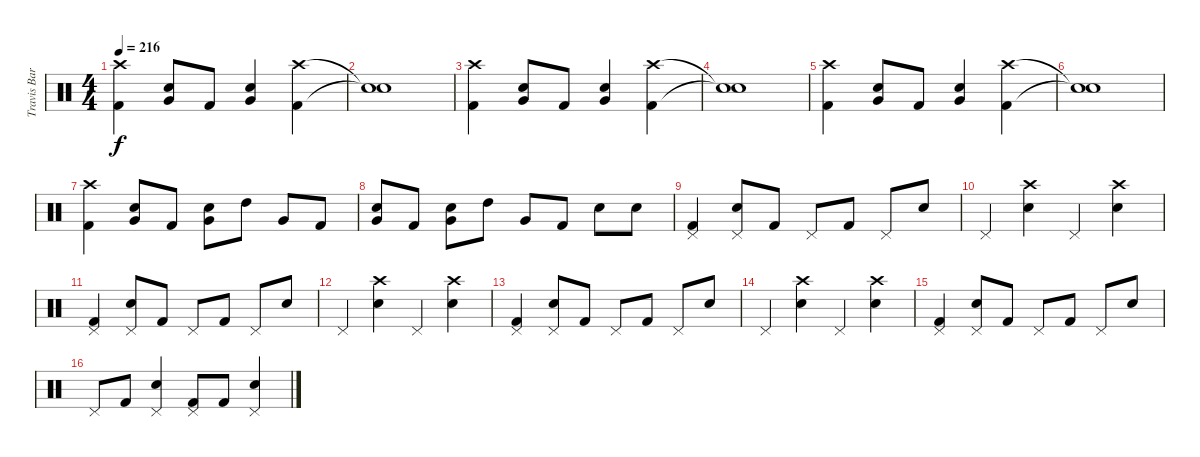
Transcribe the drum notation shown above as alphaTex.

\track ("Travis Barker (Drums)" "Travis Bar") {instrument percussion}
\staff {score}
\articulation defaults
\ts (4 4)
\tempo 216
\clef neutral
\ks c
("Crash high (hit)" "Kick (hit) 2").4{dy f} ("Very Low Tom (hit)" "Electric Snare (hit)").8 "Kick (hit) 2".8 ("Very Low Tom (hit)" "Electric Snare (hit)").4 ("Crash high (hit)" "Kick (hit) 2").4 |
("Snare (hit)"{t} "Snare (hit)"{t}).1 |
("Crash high (hit)" "Kick (hit) 2").4 ("Very Low Tom (hit)" "Electric Snare (hit)").8 "Kick (hit) 2".8 ("Very Low Tom (hit)" "Electric Snare (hit)").4 ("Crash high (hit)" "Kick (hit) 2").4 |
("Snare (hit)"{t} "Snare (hit)"{t}).1 |
("Crash high (hit)" "Kick (hit) 2").4 ("Very Low Tom (hit)" "Electric Snare (hit)").8 "Kick (hit) 2".8 ("Very Low Tom (hit)" "Electric Snare (hit)").4 ("Crash high (hit)" "Kick (hit) 2").4 |
("Snare (hit)"{t} "Snare (hit)"{t}).1 |
("Crash high (hit)" "Kick (hit) 2").4 ("Very Low Tom (hit)" "Electric Snare (hit)").8 "Kick (hit) 2".8 ("Very Low Tom (hit)" "Electric Snare (hit)").8 "High Tom (hit)".8 "Very Low Tom (hit)".8 "Kick (hit) 2".8 |
("Very Low Tom (hit)" "Electric Snare (hit)").8 "Kick (hit) 2".8 ("Very Low Tom (hit)" "Electric Snare (hit)").8 "High Tom (hit)".8 "Very Low Tom (hit)".8 "Kick (hit) 2".8 "Electric Snare (hit)".8 "Electric Snare (hit)".8 |
("Pedal Hi-Hat (hit)" "Kick (hit) 2").4 ("Pedal Hi-Hat (hit)" "Electric Snare (hit)").8 "Kick (hit) 2".8 "Pedal Hi-Hat (hit)".8 "Kick (hit) 2".8 "Pedal Hi-Hat (hit)".8 "Electric Snare (hit)".8 |
"Pedal Hi-Hat (hit)".4 ("Crash high (hit)" "Electric Snare (hit)").4 "Pedal Hi-Hat (hit)".4 ("Crash high (hit)" "Electric Snare (hit)").4 |
("Pedal Hi-Hat (hit)" "Kick (hit) 2").4 ("Pedal Hi-Hat (hit)" "Electric Snare (hit)").8 "Kick (hit) 2".8 "Pedal Hi-Hat (hit)".8 "Kick (hit) 2".8 "Pedal Hi-Hat (hit)".8 "Electric Snare (hit)".8 |
"Pedal Hi-Hat (hit)".4 ("Crash high (hit)" "Electric Snare (hit)").4 "Pedal Hi-Hat (hit)".4 ("Crash high (hit)" "Electric Snare (hit)").4 |
("Pedal Hi-Hat (hit)" "Kick (hit) 2").4 ("Pedal Hi-Hat (hit)" "Electric Snare (hit)").8 "Kick (hit) 2".8 "Pedal Hi-Hat (hit)".8 "Kick (hit) 2".8 "Pedal Hi-Hat (hit)".8 "Electric Snare (hit)".8 |
"Pedal Hi-Hat (hit)".4 ("Crash high (hit)" "Electric Snare (hit)").4 "Pedal Hi-Hat (hit)".4 ("Crash high (hit)" "Electric Snare (hit)").4 |
("Pedal Hi-Hat (hit)" "Kick (hit) 2").4 ("Pedal Hi-Hat (hit)" "Electric Snare (hit)").8 "Kick (hit) 2".8 "Pedal Hi-Hat (hit)".8 "Kick (hit) 2".8 "Pedal Hi-Hat (hit)".8 "Electric Snare (hit)".8 |
"Pedal Hi-Hat (hit)".8 "Kick (hit) 2".8 ("Pedal Hi-Hat (hit)" "Electric Snare (hit)").4 ("Pedal Hi-Hat (hit)" "Kick (hit) 2").8 "Kick (hit) 2".8 ("Pedal Hi-Hat (hit)" "Electric Snare (hit)").4
